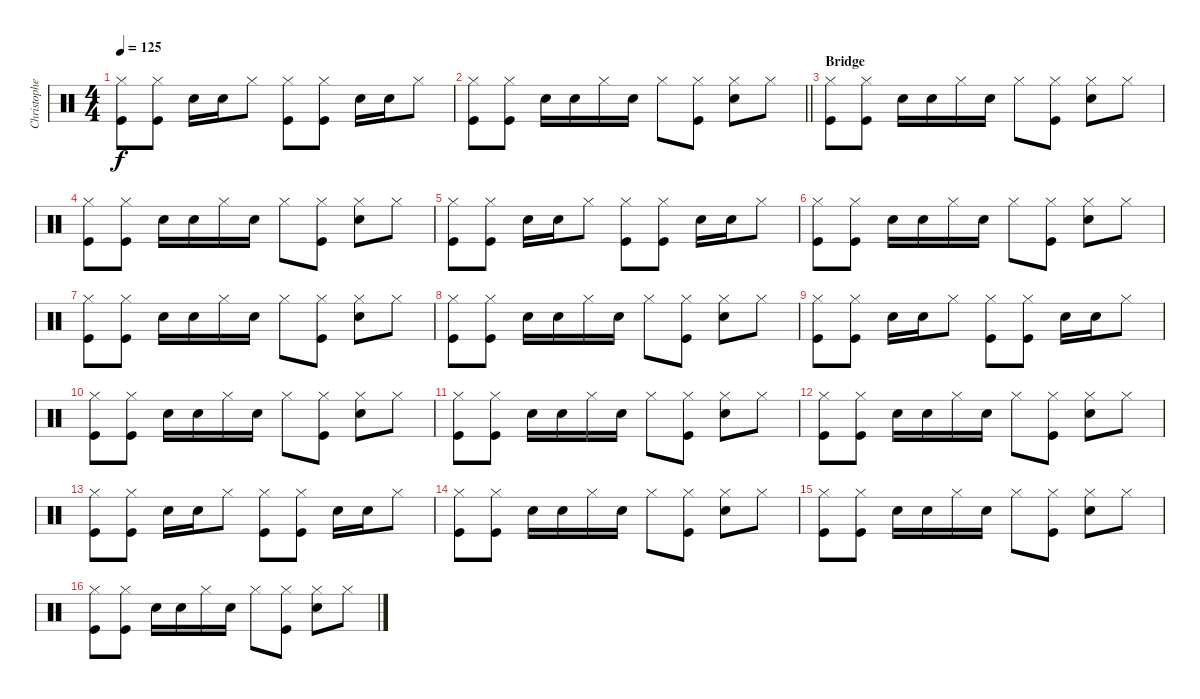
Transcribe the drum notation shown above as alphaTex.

\track ("Christopher - Drums" "Christophe") {instrument percussion}
\staff {score}
\articulation defaults
\ts (4 4)
\tempo 125
\clef neutral
\ks c
("Hi-Hat (closed)" "Kick (hit)").8{dy f} ("Hi-Hat (closed)" "Kick (hit)").8 "Snare (hit) 2".16 "Snare (hit) 2".16 "Hi-Hat (closed)".8 ("Hi-Hat (closed)" "Kick (hit)").8 ("Hi-Hat (closed)" "Kick (hit)").8 "Snare (hit) 2".16 "Snare (hit) 2".16 "Hi-Hat (closed)".8 |
\barLineRight lightlight
("Hi-Hat (closed)" "Kick (hit)").8 ("Hi-Hat (closed)" "Kick (hit)").8 "Snare (hit) 2".16 "Snare (hit) 2".16 "Hi-Hat (closed)".16 "Snare (hit) 2".16 "Hi-Hat (closed)".8 ("Hi-Hat (closed)" "Kick (hit)").8 ("Hi-Hat (closed)" "Snare (hit) 2").8 "Hi-Hat (closed)".8 |
\section ("" "Bridge")
("Hi-Hat (closed)" "Kick (hit)").8 ("Hi-Hat (closed)" "Kick (hit)").8 "Snare (hit) 2".16 "Snare (hit) 2".16 "Hi-Hat (closed)".16 "Snare (hit) 2".16 "Hi-Hat (closed)".8 ("Hi-Hat (closed)" "Kick (hit)").8 ("Hi-Hat (closed)" "Snare (hit) 2").8 "Hi-Hat (closed)".8 |
("Hi-Hat (closed)" "Kick (hit)").8 ("Hi-Hat (closed)" "Kick (hit)").8 "Snare (hit) 2".16 "Snare (hit) 2".16 "Hi-Hat (closed)".16 "Snare (hit) 2".16 "Hi-Hat (closed)".8 ("Hi-Hat (closed)" "Kick (hit)").8 ("Hi-Hat (closed)" "Snare (hit) 2").8 "Hi-Hat (closed)".8 |
("Hi-Hat (closed)" "Kick (hit)").8 ("Hi-Hat (closed)" "Kick (hit)").8 "Snare (hit) 2".16 "Snare (hit) 2".16 "Hi-Hat (closed)".8 ("Hi-Hat (closed)" "Kick (hit)").8 ("Hi-Hat (closed)" "Kick (hit)").8 "Snare (hit) 2".16 "Snare (hit) 2".16 "Hi-Hat (closed)".8 |
("Hi-Hat (closed)" "Kick (hit)").8 ("Hi-Hat (closed)" "Kick (hit)").8 "Snare (hit) 2".16 "Snare (hit) 2".16 "Hi-Hat (closed)".16 "Snare (hit) 2".16 "Hi-Hat (closed)".8 ("Hi-Hat (closed)" "Kick (hit)").8 ("Hi-Hat (closed)" "Snare (hit) 2").8 "Hi-Hat (closed)".8 |
("Hi-Hat (closed)" "Kick (hit)").8 ("Hi-Hat (closed)" "Kick (hit)").8 "Snare (hit) 2".16 "Snare (hit) 2".16 "Hi-Hat (closed)".16 "Snare (hit) 2".16 "Hi-Hat (closed)".8 ("Hi-Hat (closed)" "Kick (hit)").8 ("Hi-Hat (closed)" "Snare (hit) 2").8 "Hi-Hat (closed)".8 |
("Hi-Hat (closed)" "Kick (hit)").8 ("Hi-Hat (closed)" "Kick (hit)").8 "Snare (hit) 2".16 "Snare (hit) 2".16 "Hi-Hat (closed)".16 "Snare (hit) 2".16 "Hi-Hat (closed)".8 ("Hi-Hat (closed)" "Kick (hit)").8 ("Hi-Hat (closed)" "Snare (hit) 2").8 "Hi-Hat (closed)".8 |
("Hi-Hat (closed)" "Kick (hit)").8 ("Hi-Hat (closed)" "Kick (hit)").8 "Snare (hit) 2".16 "Snare (hit) 2".16 "Hi-Hat (closed)".8 ("Hi-Hat (closed)" "Kick (hit)").8 ("Hi-Hat (closed)" "Kick (hit)").8 "Snare (hit) 2".16 "Snare (hit) 2".16 "Hi-Hat (closed)".8 |
("Hi-Hat (closed)" "Kick (hit)").8 ("Hi-Hat (closed)" "Kick (hit)").8 "Snare (hit) 2".16 "Snare (hit) 2".16 "Hi-Hat (closed)".16 "Snare (hit) 2".16 "Hi-Hat (closed)".8 ("Hi-Hat (closed)" "Kick (hit)").8 ("Hi-Hat (closed)" "Snare (hit) 2").8 "Hi-Hat (closed)".8 |
("Hi-Hat (closed)" "Kick (hit)").8 ("Hi-Hat (closed)" "Kick (hit)").8 "Snare (hit) 2".16 "Snare (hit) 2".16 "Hi-Hat (closed)".16 "Snare (hit) 2".16 "Hi-Hat (closed)".8 ("Hi-Hat (closed)" "Kick (hit)").8 ("Hi-Hat (closed)" "Snare (hit) 2").8 "Hi-Hat (closed)".8 |
("Hi-Hat (closed)" "Kick (hit)").8 ("Hi-Hat (closed)" "Kick (hit)").8 "Snare (hit) 2".16 "Snare (hit) 2".16 "Hi-Hat (closed)".16 "Snare (hit) 2".16 "Hi-Hat (closed)".8 ("Hi-Hat (closed)" "Kick (hit)").8 ("Hi-Hat (closed)" "Snare (hit) 2").8 "Hi-Hat (closed)".8 |
("Hi-Hat (closed)" "Kick (hit)").8 ("Hi-Hat (closed)" "Kick (hit)").8 "Snare (hit) 2".16 "Snare (hit) 2".16 "Hi-Hat (closed)".8 ("Hi-Hat (closed)" "Kick (hit)").8 ("Hi-Hat (closed)" "Kick (hit)").8 "Snare (hit) 2".16 "Snare (hit) 2".16 "Hi-Hat (closed)".8 |
("Hi-Hat (closed)" "Kick (hit)").8 ("Hi-Hat (closed)" "Kick (hit)").8 "Snare (hit) 2".16 "Snare (hit) 2".16 "Hi-Hat (closed)".16 "Snare (hit) 2".16 "Hi-Hat (closed)".8 ("Hi-Hat (closed)" "Kick (hit)").8 ("Hi-Hat (closed)" "Snare (hit) 2").8 "Hi-Hat (closed)".8 |
("Hi-Hat (closed)" "Kick (hit)").8 ("Hi-Hat (closed)" "Kick (hit)").8 "Snare (hit) 2".16 "Snare (hit) 2".16 "Hi-Hat (closed)".16 "Snare (hit) 2".16 "Hi-Hat (closed)".8 ("Hi-Hat (closed)" "Kick (hit)").8 ("Hi-Hat (closed)" "Snare (hit) 2").8 "Hi-Hat (closed)".8 |
("Hi-Hat (closed)" "Kick (hit)").8 ("Hi-Hat (closed)" "Kick (hit)").8 "Snare (hit) 2".16 "Snare (hit) 2".16 "Hi-Hat (closed)".16 "Snare (hit) 2".16 "Hi-Hat (closed)".8 ("Hi-Hat (closed)" "Kick (hit)").8 ("Hi-Hat (closed)" "Snare (hit) 2").8 "Hi-Hat (closed)".8
